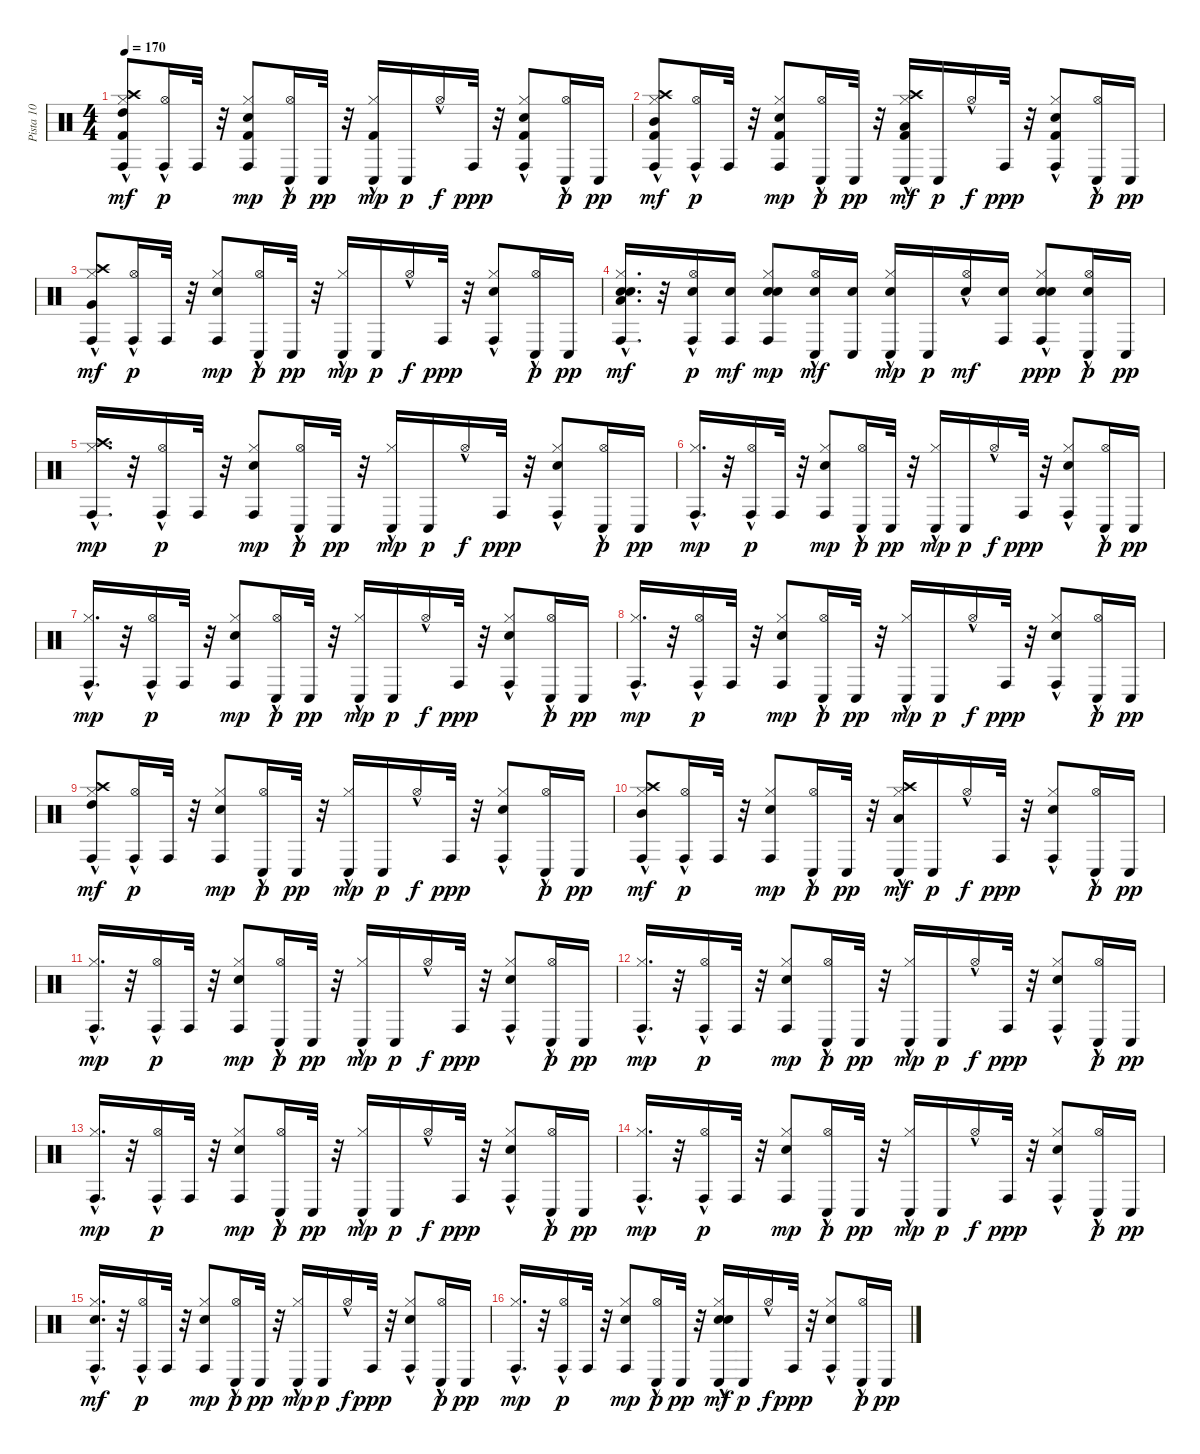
\track ("Pista 10" "Pista 10") {instrument percussion}
\staff {score}
\articulation defaults
\ts (4 4)
\tempo 170
\clef neutral
\ks c
("Kick (hit) 2" "Hi-Hat (closed)"{hac} "Conga high (hit)" "Crash high (hit)" "High Tom (hit)"{hac}).8{dy mf} ("Hi-Hat (open)"{hac} "Conga high (hit)").16{dy p} "Conga high (hit)".32 r.32 ("Kick (hit) 2" "Electric Snare (hit)" "Hi-Hat (closed)" "Conga high (hit)").8{dy mp} ("Hi-Hat (open)"{hac} "Conga low (hit)").16{dy p} "Conga low (hit)".32{dy pp} r.32 ("Kick (hit) 2" "Hi-Hat (closed)"{hac} "Conga low (hit)").16{dy mp} "Conga low (hit)".16{dy p} "Hi-Hat (open)"{hac}.16{dy f} "Conga high (hit)".32{dy ppp} r.32 ("Kick (hit) 2" "Electric Snare (hit)" "Hi-Hat (closed)"{hac} "Conga high (hit)").8 ("Hi-Hat (open)"{hac} "Conga low (hit)").16{dy p} "Conga low (hit)".16{dy pp} |
("Kick (hit) 2" "Hi-Hat (closed)"{hac} "Conga high (hit)" "Crash high (hit)" "Mid Tom (hit)").8{dy mf} ("Hi-Hat (open)"{hac} "Conga high (hit)").16{dy p} "Conga high (hit)".32 r.32 ("Kick (hit) 2" "Electric Snare (hit)" "Hi-Hat (closed)" "Conga high (hit)").8{dy mp} ("Hi-Hat (open)"{hac} "Conga low (hit)").16{dy p} "Conga low (hit)".32{dy pp} r.32 ("Kick (hit) 2" "Hi-Hat (closed)"{hac} "Conga low (hit)" "Low Tom (hit)" "Crash high (hit)").16{dy mf} "Conga low (hit)".16{dy p} "Hi-Hat (open)"{hac}.16{dy f} "Conga high (hit)".32{dy ppp} r.32 ("Kick (hit) 2" "Electric Snare (hit)" "Hi-Hat (closed)"{hac} "Conga high (hit)").8 ("Hi-Hat (open)"{hac} "Conga low (hit)").16{dy p} "Conga low (hit)".16{dy pp} |
("Hi-Hat (closed)"{hac} "Conga high (hit)" "Very Low Tom (hit)" "Crash high (hit)").8{dy mf} ("Hi-Hat (open)"{hac} "Conga high (hit)").16{dy p} "Conga high (hit)".32 r.32 ("Electric Snare (hit)" "Hi-Hat (closed)" "Conga high (hit)").8{dy mp} ("Hi-Hat (open)"{hac} "Conga low (hit)").16{dy p} "Conga low (hit)".32{dy pp} r.32 ("Hi-Hat (closed)"{hac} "Conga low (hit)").16{dy mp} "Conga low (hit)".16{dy p} "Hi-Hat (open)"{hac}.16{dy f} "Conga high (hit)".32{dy ppp} r.32 ("Electric Snare (hit)" "Hi-Hat (closed)"{hac} "Conga high (hit)").8 ("Hi-Hat (open)"{hac} "Conga low (hit)").16{dy p} "Conga low (hit)".16{dy pp} |
("Hi-Hat (closed)"{hac} "Conga high (hit)" "Electric Snare (hit)" "Low Floor Tom (hit)" "Electric Snare (hit)").16{d dy mf} r.32 ("Hi-Hat (open)"{hac} "Snare (hit) 2" "Conga high (hit)").16{dy p} ("Conga high (hit)" "Snare (hit) 2").16{dy mf} ("Electric Snare (hit)" "Hi-Hat (closed)" "Conga high (hit)" "Electric Snare (hit)").8{dy mp} ("Hi-Hat (open)"{hac} "Conga low (hit)" "Snare (hit) 2").16{dy mf} ("Conga low (hit)" "Snare (hit) 2").16 ("Hi-Hat (closed)"{hac} "Conga low (hit)" "Electric Snare (hit)").16{dy mp} "Conga low (hit)".16{dy p} ("Hi-Hat (open)"{hac} "Snare (hit) 2").16{dy mf} ("Conga high (hit)" "Snare (hit) 2").16 ("Electric Snare (hit)" "Hi-Hat (closed)"{hac} "Conga high (hit)" "Electric Snare (hit)").8{dy ppp} ("Hi-Hat (open)"{hac} "Snare (hit) 2" "Conga low (hit)").16{dy p} "Conga low (hit)".16{dy pp} |
("Hi-Hat (closed)"{hac} "Conga high (hit)" "Crash high (hit)").16{d dy mp} r.32 ("Hi-Hat (open)"{hac} "Conga high (hit)").16{dy p} "Conga high (hit)".32 r.32 ("Electric Snare (hit)" "Hi-Hat (closed)" "Conga high (hit)").8{dy mp} ("Hi-Hat (open)"{hac} "Conga low (hit)").16{dy p} "Conga low (hit)".32{dy pp} r.32 ("Hi-Hat (closed)"{hac} "Conga low (hit)").16{dy mp} "Conga low (hit)".16{dy p} "Hi-Hat (open)"{hac}.16{dy f} "Conga high (hit)".32{dy ppp} r.32 ("Electric Snare (hit)" "Hi-Hat (closed)"{hac} "Conga high (hit)").8 ("Hi-Hat (open)"{hac} "Conga low (hit)").16{dy p} "Conga low (hit)".16{dy pp} |
("Hi-Hat (closed)"{hac} "Conga high (hit)").16{d dy mp} r.32 ("Hi-Hat (open)"{hac} "Conga high (hit)").16{dy p} "Conga high (hit)".32 r.32 ("Electric Snare (hit)" "Hi-Hat (closed)" "Conga high (hit)").8{dy mp} ("Hi-Hat (open)"{hac} "Conga low (hit)").16{dy p} "Conga low (hit)".32{dy pp} r.32 ("Hi-Hat (closed)"{hac} "Conga low (hit)").16{dy mp} "Conga low (hit)".16{dy p} "Hi-Hat (open)"{hac}.16{dy f} "Conga high (hit)".32{dy ppp} r.32 ("Electric Snare (hit)" "Hi-Hat (closed)"{hac} "Conga high (hit)").8 ("Hi-Hat (open)"{hac} "Conga low (hit)").16{dy p} "Conga low (hit)".16{dy pp} |
("Hi-Hat (closed)"{hac} "Conga high (hit)").16{d dy mp} r.32 ("Hi-Hat (open)"{hac} "Conga high (hit)").16{dy p} "Conga high (hit)".32 r.32 ("Electric Snare (hit)" "Hi-Hat (closed)" "Conga high (hit)").8{dy mp} ("Hi-Hat (open)"{hac} "Conga low (hit)").16{dy p} "Conga low (hit)".32{dy pp} r.32 ("Hi-Hat (closed)"{hac} "Conga low (hit)").16{dy mp} "Conga low (hit)".16{dy p} "Hi-Hat (open)"{hac}.16{dy f} "Conga high (hit)".32{dy ppp} r.32 ("Electric Snare (hit)" "Hi-Hat (closed)"{hac} "Conga high (hit)").8 ("Hi-Hat (open)"{hac} "Conga low (hit)").16{dy p} "Conga low (hit)".16{dy pp} |
("Hi-Hat (closed)"{hac} "Conga high (hit)").16{d dy mp} r.32 ("Hi-Hat (open)"{hac} "Conga high (hit)").16{dy p} "Conga high (hit)".32 r.32 ("Electric Snare (hit)" "Hi-Hat (closed)" "Conga high (hit)").8{dy mp} ("Hi-Hat (open)"{hac} "Conga low (hit)").16{dy p} "Conga low (hit)".32{dy pp} r.32 ("Hi-Hat (closed)"{hac} "Conga low (hit)").16{dy mp} "Conga low (hit)".16{dy p} "Hi-Hat (open)"{hac}.16{dy f} "Conga high (hit)".32{dy ppp} r.32 ("Electric Snare (hit)" "Hi-Hat (closed)"{hac} "Conga high (hit)").8 ("Hi-Hat (open)"{hac} "Conga low (hit)").16{dy p} "Conga low (hit)".16{dy pp} |
("Hi-Hat (closed)"{hac} "Conga high (hit)" "High Tom (hit)"{hac} "Crash high (hit)").8{dy mf} ("Hi-Hat (open)"{hac} "Conga high (hit)").16{dy p} "Conga high (hit)".32 r.32 ("Electric Snare (hit)" "Hi-Hat (closed)" "Conga high (hit)").8{dy mp} ("Hi-Hat (open)"{hac} "Conga low (hit)").16{dy p} "Conga low (hit)".32{dy pp} r.32 ("Hi-Hat (closed)"{hac} "Conga low (hit)").16{dy mp} "Conga low (hit)".16{dy p} "Hi-Hat (open)"{hac}.16{dy f} "Conga high (hit)".32{dy ppp} r.32 ("Electric Snare (hit)" "Hi-Hat (closed)"{hac} "Conga high (hit)").8 ("Hi-Hat (open)"{hac} "Conga low (hit)").16{dy p} "Conga low (hit)".16{dy pp} |
("Hi-Hat (closed)"{hac} "Conga high (hit)" "Crash high (hit)" "Mid Tom (hit)").8{dy mf} ("Hi-Hat (open)"{hac} "Conga high (hit)").16{dy p} "Conga high (hit)".32 r.32 ("Electric Snare (hit)" "Hi-Hat (closed)" "Conga high (hit)").8{dy mp} ("Hi-Hat (open)"{hac} "Conga low (hit)").16{dy p} "Conga low (hit)".32{dy pp} r.32 ("Hi-Hat (closed)"{hac} "Conga low (hit)" "Crash high (hit)" "Low Tom (hit)").16{dy mf} "Conga low (hit)".16{dy p} "Hi-Hat (open)"{hac}.16{dy f} "Conga high (hit)".32{dy ppp} r.32 ("Electric Snare (hit)" "Hi-Hat (closed)"{hac} "Conga high (hit)").8 ("Hi-Hat (open)"{hac} "Conga low (hit)").16{dy p} "Conga low (hit)".16{dy pp} |
("Hi-Hat (closed)"{hac} "Conga high (hit)").16{d dy mp} r.32 ("Hi-Hat (open)"{hac} "Conga high (hit)").16{dy p} "Conga high (hit)".32 r.32 ("Electric Snare (hit)" "Hi-Hat (closed)" "Conga high (hit)").8{dy mp} ("Hi-Hat (open)"{hac} "Conga low (hit)").16{dy p} "Conga low (hit)".32{dy pp} r.32 ("Hi-Hat (closed)"{hac} "Conga low (hit)").16{dy mp} "Conga low (hit)".16{dy p} "Hi-Hat (open)"{hac}.16{dy f} "Conga high (hit)".32{dy ppp} r.32 ("Electric Snare (hit)" "Hi-Hat (closed)"{hac} "Conga high (hit)").8 ("Hi-Hat (open)"{hac} "Conga low (hit)").16{dy p} "Conga low (hit)".16{dy pp} |
("Hi-Hat (closed)"{hac} "Conga high (hit)").16{d dy mp} r.32 ("Hi-Hat (open)"{hac} "Conga high (hit)").16{dy p} "Conga high (hit)".32 r.32 ("Electric Snare (hit)" "Hi-Hat (closed)" "Conga high (hit)").8{dy mp} ("Hi-Hat (open)"{hac} "Conga low (hit)").16{dy p} "Conga low (hit)".32{dy pp} r.32 ("Hi-Hat (closed)"{hac} "Conga low (hit)").16{dy mp} "Conga low (hit)".16{dy p} "Hi-Hat (open)"{hac}.16{dy f} "Conga high (hit)".32{dy ppp} r.32 ("Electric Snare (hit)" "Hi-Hat (closed)"{hac} "Conga high (hit)").8 ("Hi-Hat (open)"{hac} "Conga low (hit)").16{dy p} "Conga low (hit)".16{dy pp} |
("Hi-Hat (closed)"{hac} "Conga high (hit)").16{d dy mp} r.32 ("Hi-Hat (open)"{hac} "Conga high (hit)").16{dy p} "Conga high (hit)".32 r.32 ("Electric Snare (hit)" "Hi-Hat (closed)" "Conga high (hit)").8{dy mp} ("Hi-Hat (open)"{hac} "Conga low (hit)").16{dy p} "Conga low (hit)".32{dy pp} r.32 ("Hi-Hat (closed)"{hac} "Conga low (hit)").16{dy mp} "Conga low (hit)".16{dy p} "Hi-Hat (open)"{hac}.16{dy f} "Conga high (hit)".32{dy ppp} r.32 ("Electric Snare (hit)" "Hi-Hat (closed)"{hac} "Conga high (hit)").8 ("Hi-Hat (open)"{hac} "Conga low (hit)").16{dy p} "Conga low (hit)".16{dy pp} |
("Hi-Hat (closed)"{hac} "Conga high (hit)").16{d dy mp} r.32 ("Hi-Hat (open)"{hac} "Conga high (hit)").16{dy p} "Conga high (hit)".32 r.32 ("Electric Snare (hit)" "Hi-Hat (closed)" "Conga high (hit)").8{dy mp} ("Hi-Hat (open)"{hac} "Conga low (hit)").16{dy p} "Conga low (hit)".32{dy pp} r.32 ("Hi-Hat (closed)"{hac} "Conga low (hit)").16{dy mp} "Conga low (hit)".16{dy p} "Hi-Hat (open)"{hac}.16{dy f} "Conga high (hit)".32{dy ppp} r.32 ("Electric Snare (hit)" "Hi-Hat (closed)"{hac} "Conga high (hit)").8 ("Hi-Hat (open)"{hac} "Conga low (hit)").16{dy p} "Conga low (hit)".16{dy pp} |
("Hi-Hat (closed)"{hac} "Conga high (hit)" "Snare (hit) 2").16{d dy mf} r.32 ("Hi-Hat (open)"{hac} "Conga high (hit)").16{dy p} "Conga high (hit)".32 r.32 ("Electric Snare (hit)" "Hi-Hat (closed)" "Conga high (hit)").8{dy mp} ("Hi-Hat (open)"{hac} "Conga low (hit)").16{dy p} "Conga low (hit)".32{dy pp} r.32 ("Hi-Hat (closed)"{hac} "Conga low (hit)").16{dy mp} "Conga low (hit)".16{dy p} "Hi-Hat (open)"{hac}.16{dy f} "Conga high (hit)".32{dy ppp} r.32 ("Electric Snare (hit)" "Hi-Hat (closed)"{hac} "Conga high (hit)").8 ("Hi-Hat (open)"{hac} "Conga low (hit)").16{dy p} "Conga low (hit)".16{dy pp} |
("Hi-Hat (closed)"{hac} "Conga high (hit)").16{d dy mp} r.32 ("Hi-Hat (open)"{hac} "Conga high (hit)").16{dy p} "Conga high (hit)".32 r.32 ("Electric Snare (hit)" "Hi-Hat (closed)" "Conga high (hit)").8{dy mp} ("Hi-Hat (open)"{hac} "Conga low (hit)").16{dy p} "Conga low (hit)".32{dy pp} r.32 ("Hi-Hat (closed)"{hac} "Conga low (hit)" "Snare (hit) 2" "Electric Snare (hit)").16{dy mf} "Conga low (hit)".16{dy p} "Hi-Hat (open)"{hac}.16{dy f} "Conga high (hit)".32{dy ppp} r.32 ("Electric Snare (hit)" "Hi-Hat (closed)"{hac} "Conga high (hit)").8 ("Hi-Hat (open)"{hac} "Conga low (hit)").16{dy p} "Conga low (hit)".16{dy pp}
